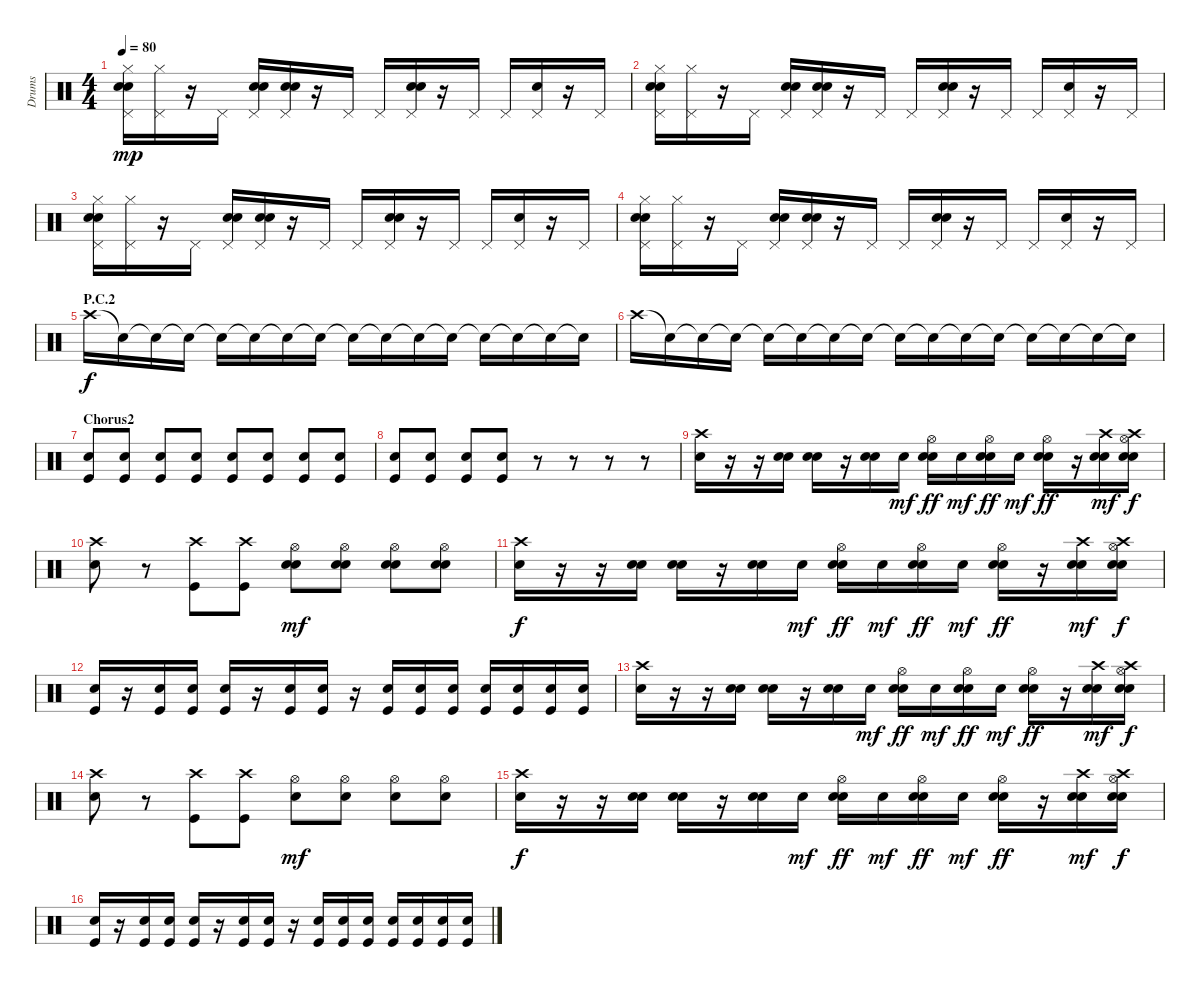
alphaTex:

\track ("Drums" "Drums") {instrument percussion}
\staff {score}
\articulation defaults
\ts (4 4)
\tempo 80
\clef neutral
\ks c
("Electric Snare (hit)" "Snare (hit) 2" "Hi-Hat (closed)" "Pedal Hi-Hat (hit)").16{dy mp} ("Hi-Hat (closed)" "Pedal Hi-Hat (hit)").16 r.16 "Pedal Hi-Hat (hit)".16 ("Electric Snare (hit)" "Electric Snare (hit)" "Pedal Hi-Hat (hit)").16 ("Electric Snare (hit)" "Electric Snare (hit)" "Pedal Hi-Hat (hit)").16 r.16 "Pedal Hi-Hat (hit)".16 "Pedal Hi-Hat (hit)".16 ("Electric Snare (hit)" "Electric Snare (hit)" "Pedal Hi-Hat (hit)").16 r.16 "Pedal Hi-Hat (hit)".16 "Pedal Hi-Hat (hit)".16 ("Electric Snare (hit)" "Pedal Hi-Hat (hit)").16 r.16 "Pedal Hi-Hat (hit)".16 |
("Electric Snare (hit)" "Snare (hit) 2" "Hi-Hat (closed)" "Pedal Hi-Hat (hit)").16 ("Hi-Hat (closed)" "Pedal Hi-Hat (hit)").16 r.16 "Pedal Hi-Hat (hit)".16 ("Electric Snare (hit)" "Electric Snare (hit)" "Pedal Hi-Hat (hit)").16 ("Electric Snare (hit)" "Electric Snare (hit)" "Pedal Hi-Hat (hit)").16 r.16 "Pedal Hi-Hat (hit)".16 "Pedal Hi-Hat (hit)".16 ("Electric Snare (hit)" "Electric Snare (hit)" "Pedal Hi-Hat (hit)").16 r.16 "Pedal Hi-Hat (hit)".16 "Pedal Hi-Hat (hit)".16 ("Electric Snare (hit)" "Pedal Hi-Hat (hit)").16 r.16 "Pedal Hi-Hat (hit)".16 |
("Electric Snare (hit)" "Snare (hit) 2" "Hi-Hat (closed)" "Pedal Hi-Hat (hit)").16 ("Hi-Hat (closed)" "Pedal Hi-Hat (hit)").16 r.16 "Pedal Hi-Hat (hit)".16 ("Electric Snare (hit)" "Electric Snare (hit)" "Pedal Hi-Hat (hit)").16 ("Electric Snare (hit)" "Electric Snare (hit)" "Pedal Hi-Hat (hit)").16 r.16 "Pedal Hi-Hat (hit)".16 "Pedal Hi-Hat (hit)".16 ("Electric Snare (hit)" "Electric Snare (hit)" "Pedal Hi-Hat (hit)").16 r.16 "Pedal Hi-Hat (hit)".16 "Pedal Hi-Hat (hit)".16 ("Electric Snare (hit)" "Pedal Hi-Hat (hit)").16 r.16 "Pedal Hi-Hat (hit)".16 |
("Electric Snare (hit)" "Snare (hit) 2" "Hi-Hat (closed)" "Pedal Hi-Hat (hit)").16 ("Hi-Hat (closed)" "Pedal Hi-Hat (hit)").16 r.16 "Pedal Hi-Hat (hit)".16 ("Electric Snare (hit)" "Electric Snare (hit)" "Pedal Hi-Hat (hit)").16 ("Electric Snare (hit)" "Electric Snare (hit)" "Pedal Hi-Hat (hit)").16 r.16 "Pedal Hi-Hat (hit)".16 "Pedal Hi-Hat (hit)".16 ("Electric Snare (hit)" "Electric Snare (hit)" "Pedal Hi-Hat (hit)").16 r.16 "Pedal Hi-Hat (hit)".16 "Pedal Hi-Hat (hit)".16 ("Electric Snare (hit)" "Pedal Hi-Hat (hit)").16 r.16 "Pedal Hi-Hat (hit)".16 |
\section ("" "P.C.2")
"Crash high (hit)".16{dy f} "Snare (hit)"{t}.16 "Snare (hit)"{t}.16 "Snare (hit)"{t}.16 "Snare (hit)"{t}.16 "Snare (hit)"{t}.16 "Snare (hit)"{t}.16 "Snare (hit)"{t}.16 "Snare (hit)"{t}.16 "Snare (hit)"{t}.16 "Snare (hit)"{t}.16 "Snare (hit)"{t}.16 "Snare (hit)"{t}.16 "Snare (hit)"{t}.16 "Snare (hit)"{t}.16 "Snare (hit)"{t}.16 |
"Crash high (hit)".16 "Snare (hit)"{t}.16 "Snare (hit)"{t}.16 "Snare (hit)"{t}.16 "Snare (hit)"{t}.16 "Snare (hit)"{t}.16 "Snare (hit)"{t}.16 "Snare (hit)"{t}.16 "Snare (hit)"{t}.16 "Snare (hit)"{t}.16 "Snare (hit)"{t}.16 "Snare (hit)"{t}.16 "Snare (hit)"{t}.16 "Snare (hit)"{t}.16 "Snare (hit)"{t}.16 "Snare (hit)"{t}.16 |
\section ("" "Chorus2")
("Kick (hit)" "Snare (hit) 2").8 ("Snare (hit) 2" "Kick (hit)").8 ("Snare (hit) 2" "Kick (hit)").8 ("Snare (hit) 2" "Kick (hit)").8 ("Snare (hit) 2" "Kick (hit)").8 ("Snare (hit) 2" "Kick (hit)").8 ("Snare (hit) 2" "Kick (hit)").8 ("Snare (hit) 2" "Kick (hit)").8 |
("Kick (hit)" "Snare (hit) 2").8 ("Kick (hit)" "Snare (hit) 2").8 ("Kick (hit)" "Snare (hit) 2").8 ("Kick (hit)" "Snare (hit) 2").8 r.8 r.8 r.8 r.8 |
("Crash high (hit)" "Snare (hit) 2").16 r.16 r.16 ("Electric Snare (hit)" "Snare (hit) 2").16 ("Electric Snare (hit)" "Snare (hit) 2").16 r.16 ("Electric Snare (hit)" "Snare (hit) 2").16 "Snare (hit) 2".16{dy mf} ("Hi-Hat (open)" "Electric Snare (hit)" "Snare (hit) 2").16{dy ff} "Snare (hit) 2".16{dy mf} ("Hi-Hat (open)" "Electric Snare (hit)" "Snare (hit) 2").16{dy ff} "Snare (hit) 2".16{dy mf} ("Hi-Hat (open)" "Electric Snare (hit)" "Snare (hit) 2").16{dy ff} r.16 ("Electric Snare (hit)" "Crash high (hit)" "Snare (hit) 2").16{dy mf} ("Hi-Hat (open)" "Crash high (hit)" "Electric Snare (hit)" "Snare (hit) 2").16{dy f} |
("Crash high (hit)" "Snare (hit) 2").8 r.8 ("Kick (hit)" "Crash high (hit)").8 ("Kick (hit)" "Crash high (hit)").8 ("Hi-Hat (open)" "Electric Snare (hit)" "Snare (hit) 2").8{dy mf} ("Hi-Hat (open)" "Electric Snare (hit)" "Snare (hit) 2").8 ("Hi-Hat (open)" "Electric Snare (hit)" "Snare (hit) 2").8 ("Hi-Hat (open)" "Electric Snare (hit)" "Snare (hit) 2").8 |
("Crash high (hit)" "Snare (hit) 2").16{dy f} r.16 r.16 ("Electric Snare (hit)" "Snare (hit) 2").16 ("Electric Snare (hit)" "Snare (hit) 2").16 r.16 ("Electric Snare (hit)" "Snare (hit) 2").16 "Snare (hit) 2".16{dy mf} ("Hi-Hat (open)" "Electric Snare (hit)" "Snare (hit) 2").16{dy ff} "Snare (hit) 2".16{dy mf} ("Hi-Hat (open)" "Electric Snare (hit)" "Snare (hit) 2").16{dy ff} "Snare (hit) 2".16{dy mf} ("Hi-Hat (open)" "Electric Snare (hit)" "Snare (hit) 2").16{dy ff} r.16 ("Electric Snare (hit)" "Crash high (hit)" "Snare (hit) 2").16{dy mf} ("Hi-Hat (open)" "Crash high (hit)" "Electric Snare (hit)" "Snare (hit) 2").16{dy f} |
("Kick (hit)" "Snare (hit) 2").16 r.16 ("Kick (hit)" "Snare (hit) 2").16 ("Kick (hit)" "Snare (hit) 2").16 ("Kick (hit)" "Snare (hit) 2").16 r.16 ("Snare (hit) 2" "Kick (hit)").16 ("Snare (hit) 2" "Kick (hit)").16 r.16 ("Snare (hit) 2" "Kick (hit)").16 ("Kick (hit)" "Snare (hit) 2").16 ("Snare (hit) 2" "Kick (hit)").16 ("Kick (hit)" "Snare (hit) 2").16 ("Snare (hit) 2" "Kick (hit)").16 ("Kick (hit)" "Snare (hit) 2").16 ("Snare (hit) 2" "Kick (hit)").16 |
("Crash high (hit)" "Snare (hit) 2").16 r.16 r.16 ("Electric Snare (hit)" "Snare (hit) 2").16 ("Electric Snare (hit)" "Snare (hit) 2").16 r.16 ("Electric Snare (hit)" "Snare (hit) 2").16 "Snare (hit) 2".16{dy mf} ("Hi-Hat (open)" "Electric Snare (hit)" "Snare (hit) 2").16{dy ff} "Snare (hit) 2".16{dy mf} ("Hi-Hat (open)" "Electric Snare (hit)" "Snare (hit) 2").16{dy ff} "Snare (hit) 2".16{dy mf} ("Hi-Hat (open)" "Electric Snare (hit)" "Snare (hit) 2").16{dy ff} r.16 ("Electric Snare (hit)" "Crash high (hit)" "Snare (hit) 2").16{dy mf} ("Hi-Hat (open)" "Crash high (hit)" "Electric Snare (hit)" "Snare (hit) 2").16{dy f} |
("Crash high (hit)" "Snare (hit) 2").8 r.8 ("Kick (hit)" "Crash high (hit)").8 ("Kick (hit)" "Crash high (hit)").8 ("Hi-Hat (open)" "Snare (hit) 2").8{dy mf} ("Hi-Hat (open)" "Snare (hit) 2").8 ("Hi-Hat (open)" "Snare (hit) 2").8 ("Hi-Hat (open)" "Snare (hit) 2").8 |
("Crash high (hit)" "Snare (hit) 2").16{dy f} r.16 r.16 ("Electric Snare (hit)" "Snare (hit) 2").16 ("Electric Snare (hit)" "Snare (hit) 2").16 r.16 ("Electric Snare (hit)" "Snare (hit) 2").16 "Snare (hit) 2".16{dy mf} ("Hi-Hat (open)" "Electric Snare (hit)" "Snare (hit) 2").16{dy ff} "Snare (hit) 2".16{dy mf} ("Hi-Hat (open)" "Electric Snare (hit)" "Snare (hit) 2").16{dy ff} "Snare (hit) 2".16{dy mf} ("Hi-Hat (open)" "Electric Snare (hit)" "Snare (hit) 2").16{dy ff} r.16 ("Electric Snare (hit)" "Crash high (hit)" "Snare (hit) 2").16{dy mf} ("Hi-Hat (open)" "Crash high (hit)" "Electric Snare (hit)" "Snare (hit) 2").16{dy f} |
("Kick (hit)" "Snare (hit) 2").16 r.16 ("Kick (hit)" "Snare (hit) 2").16 ("Kick (hit)" "Snare (hit) 2").16 ("Kick (hit)" "Snare (hit) 2").16 r.16 ("Snare (hit) 2" "Kick (hit)").16 ("Snare (hit) 2" "Kick (hit)").16 r.16 ("Snare (hit) 2" "Kick (hit)").16 ("Kick (hit)" "Snare (hit) 2").16 ("Snare (hit) 2" "Kick (hit)").16 ("Kick (hit)" "Snare (hit) 2").16 ("Snare (hit) 2" "Kick (hit)").16 ("Kick (hit)" "Snare (hit) 2").16 ("Snare (hit) 2" "Kick (hit)").16
